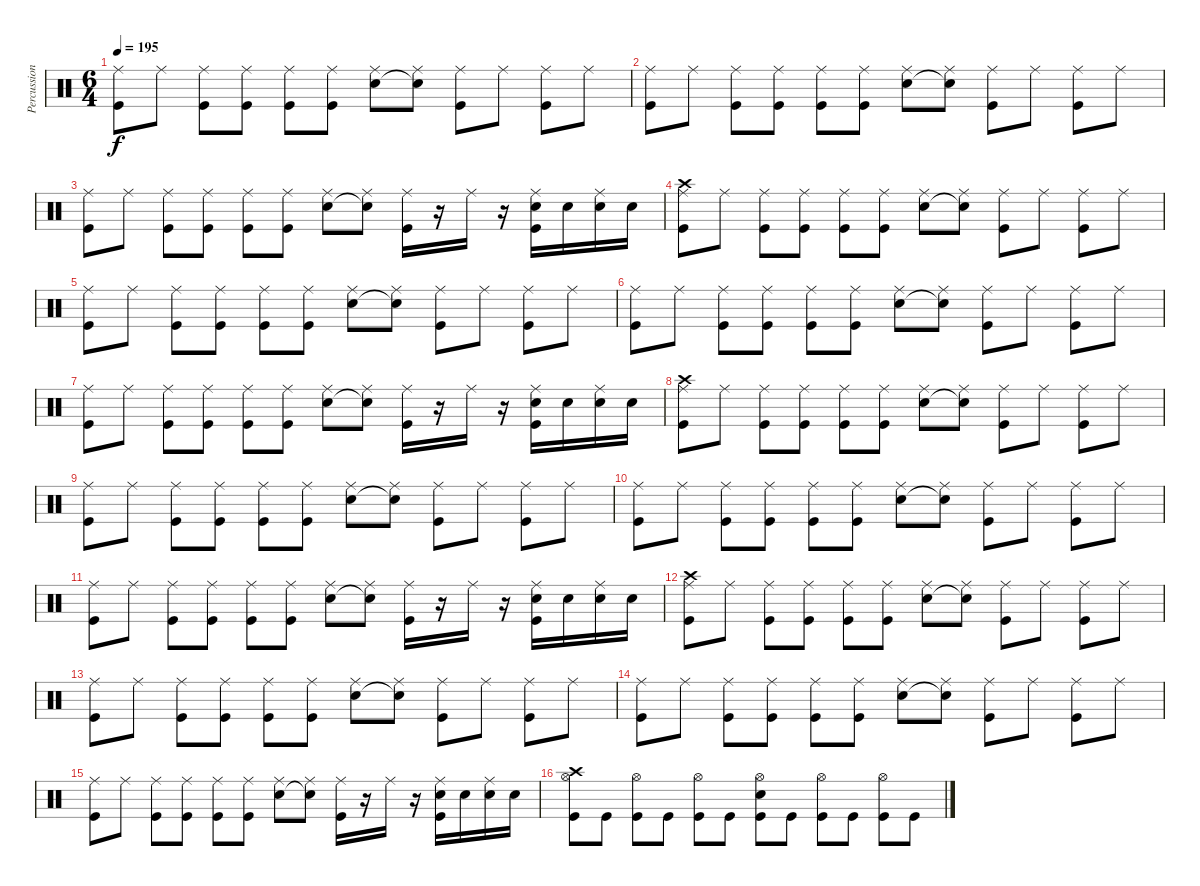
\track ("Percussion" "Percussion") {instrument percussion}
\staff {score}
\articulation defaults
\ts (6 4)
\tempo 195
\clef neutral
\ks c
("Ride (middle)" "Kick (hit)").8{dy f} "Ride (middle)".8 ("Ride (middle)" "Kick (hit)").8 ("Ride (middle)" "Kick (hit)").8 ("Ride (middle)" "Kick (hit)").8 ("Ride (middle)" "Kick (hit)").8 ("Ride (middle)" "Electric Snare (hit)").8 ("Ride (middle)" "Snare (hit)"{t}).8 ("Ride (middle)" "Kick (hit)").8 "Ride (middle)".8 ("Ride (middle)" "Kick (hit)").8 "Ride (middle)".8 |
("Ride (middle)" "Kick (hit)").8 "Ride (middle)".8 ("Ride (middle)" "Kick (hit)").8 ("Ride (middle)" "Kick (hit)").8 ("Ride (middle)" "Kick (hit)").8 ("Ride (middle)" "Kick (hit)").8 ("Ride (middle)" "Electric Snare (hit)").8 ("Ride (middle)" "Snare (hit)"{t}).8 ("Ride (middle)" "Kick (hit)").8 "Ride (middle)".8 ("Ride (middle)" "Kick (hit)").8 "Ride (middle)".8 |
("Ride (middle)" "Kick (hit)").8 "Ride (middle)".8 ("Ride (middle)" "Kick (hit)").8 ("Ride (middle)" "Kick (hit)").8 ("Ride (middle)" "Kick (hit)").8 ("Ride (middle)" "Kick (hit)").8 ("Ride (middle)" "Electric Snare (hit)").8 ("Ride (middle)" "Snare (hit)"{t}).8 ("Ride (middle)" "Kick (hit)").16 r.16 "Ride (middle)".16 r.16 ("Ride (middle)" "Electric Snare (hit)" "Kick (hit)").16 "Electric Snare (hit)".16 ("Ride (middle)" "Electric Snare (hit)").16 "Electric Snare (hit)".16 |
("Crash high (hit)" "Ride (middle)" "Kick (hit)").8 "Ride (middle)".8 ("Ride (middle)" "Kick (hit)").8 ("Ride (middle)" "Kick (hit)").8 ("Ride (middle)" "Kick (hit)").8 ("Ride (middle)" "Kick (hit)").8 ("Ride (middle)" "Electric Snare (hit)").8 ("Ride (middle)" "Snare (hit)"{t}).8 ("Ride (middle)" "Kick (hit)").8 "Ride (middle)".8 ("Ride (middle)" "Kick (hit)").8 "Ride (middle)".8 |
("Ride (middle)" "Kick (hit)").8 "Ride (middle)".8 ("Ride (middle)" "Kick (hit)").8 ("Ride (middle)" "Kick (hit)").8 ("Ride (middle)" "Kick (hit)").8 ("Ride (middle)" "Kick (hit)").8 ("Ride (middle)" "Electric Snare (hit)").8 ("Ride (middle)" "Snare (hit)"{t}).8 ("Ride (middle)" "Kick (hit)").8 "Ride (middle)".8 ("Ride (middle)" "Kick (hit)").8 "Ride (middle)".8 |
("Ride (middle)" "Kick (hit)").8 "Ride (middle)".8 ("Ride (middle)" "Kick (hit)").8 ("Ride (middle)" "Kick (hit)").8 ("Ride (middle)" "Kick (hit)").8 ("Ride (middle)" "Kick (hit)").8 ("Ride (middle)" "Electric Snare (hit)").8 ("Ride (middle)" "Snare (hit)"{t}).8 ("Ride (middle)" "Kick (hit)").8 "Ride (middle)".8 ("Ride (middle)" "Kick (hit)").8 "Ride (middle)".8 |
("Ride (middle)" "Kick (hit)").8 "Ride (middle)".8 ("Ride (middle)" "Kick (hit)").8 ("Ride (middle)" "Kick (hit)").8 ("Ride (middle)" "Kick (hit)").8 ("Ride (middle)" "Kick (hit)").8 ("Ride (middle)" "Electric Snare (hit)").8 ("Ride (middle)" "Snare (hit)"{t}).8 ("Ride (middle)" "Kick (hit)").16 r.16 "Ride (middle)".16 r.16 ("Ride (middle)" "Electric Snare (hit)" "Kick (hit)").16 "Electric Snare (hit)".16 ("Ride (middle)" "Electric Snare (hit)").16 "Electric Snare (hit)".16 |
("Crash high (hit)" "Ride (middle)" "Kick (hit)").8 "Ride (middle)".8 ("Ride (middle)" "Kick (hit)").8 ("Ride (middle)" "Kick (hit)").8 ("Ride (middle)" "Kick (hit)").8 ("Ride (middle)" "Kick (hit)").8 ("Ride (middle)" "Electric Snare (hit)").8 ("Ride (middle)" "Snare (hit)"{t}).8 ("Ride (middle)" "Kick (hit)").8 "Ride (middle)".8 ("Ride (middle)" "Kick (hit)").8 "Ride (middle)".8 |
("Ride (middle)" "Kick (hit)").8 "Ride (middle)".8 ("Ride (middle)" "Kick (hit)").8 ("Ride (middle)" "Kick (hit)").8 ("Ride (middle)" "Kick (hit)").8 ("Ride (middle)" "Kick (hit)").8 ("Ride (middle)" "Electric Snare (hit)").8 ("Ride (middle)" "Snare (hit)"{t}).8 ("Ride (middle)" "Kick (hit)").8 "Ride (middle)".8 ("Ride (middle)" "Kick (hit)").8 "Ride (middle)".8 |
("Ride (middle)" "Kick (hit)").8 "Ride (middle)".8 ("Ride (middle)" "Kick (hit)").8 ("Ride (middle)" "Kick (hit)").8 ("Ride (middle)" "Kick (hit)").8 ("Ride (middle)" "Kick (hit)").8 ("Ride (middle)" "Electric Snare (hit)").8 ("Ride (middle)" "Snare (hit)"{t}).8 ("Ride (middle)" "Kick (hit)").8 "Ride (middle)".8 ("Ride (middle)" "Kick (hit)").8 "Ride (middle)".8 |
("Ride (middle)" "Kick (hit)").8 "Ride (middle)".8 ("Ride (middle)" "Kick (hit)").8 ("Ride (middle)" "Kick (hit)").8 ("Ride (middle)" "Kick (hit)").8 ("Ride (middle)" "Kick (hit)").8 ("Ride (middle)" "Electric Snare (hit)").8 ("Ride (middle)" "Snare (hit)"{t}).8 ("Ride (middle)" "Kick (hit)").16 r.16 "Ride (middle)".16 r.16 ("Ride (middle)" "Electric Snare (hit)" "Kick (hit)").16 "Electric Snare (hit)".16 ("Ride (middle)" "Electric Snare (hit)").16 "Electric Snare (hit)".16 |
("Crash high (hit)" "Ride (middle)" "Kick (hit)").8 "Ride (middle)".8 ("Ride (middle)" "Kick (hit)").8 ("Ride (middle)" "Kick (hit)").8 ("Ride (middle)" "Kick (hit)").8 ("Ride (middle)" "Kick (hit)").8 ("Ride (middle)" "Electric Snare (hit)").8 ("Ride (middle)" "Snare (hit)"{t}).8 ("Ride (middle)" "Kick (hit)").8 "Ride (middle)".8 ("Ride (middle)" "Kick (hit)").8 "Ride (middle)".8 |
("Ride (middle)" "Kick (hit)").8 "Ride (middle)".8 ("Ride (middle)" "Kick (hit)").8 ("Ride (middle)" "Kick (hit)").8 ("Ride (middle)" "Kick (hit)").8 ("Ride (middle)" "Kick (hit)").8 ("Ride (middle)" "Electric Snare (hit)").8 ("Ride (middle)" "Snare (hit)"{t}).8 ("Ride (middle)" "Kick (hit)").8 "Ride (middle)".8 ("Ride (middle)" "Kick (hit)").8 "Ride (middle)".8 |
("Ride (middle)" "Kick (hit)").8 "Ride (middle)".8 ("Ride (middle)" "Kick (hit)").8 ("Ride (middle)" "Kick (hit)").8 ("Ride (middle)" "Kick (hit)").8 ("Ride (middle)" "Kick (hit)").8 ("Ride (middle)" "Electric Snare (hit)").8 ("Ride (middle)" "Snare (hit)"{t}).8 ("Ride (middle)" "Kick (hit)").8 "Ride (middle)".8 ("Ride (middle)" "Kick (hit)").8 "Ride (middle)".8 |
("Ride (middle)" "Kick (hit)").8 "Ride (middle)".8 ("Ride (middle)" "Kick (hit)").8 ("Ride (middle)" "Kick (hit)").8 ("Ride (middle)" "Kick (hit)").8 ("Ride (middle)" "Kick (hit)").8 ("Ride (middle)" "Electric Snare (hit)").8 ("Ride (middle)" "Snare (hit)"{t}).8 ("Ride (middle)" "Kick (hit)").16 r.16 "Ride (middle)".16 r.16 ("Ride (middle)" "Electric Snare (hit)" "Kick (hit)").16 "Electric Snare (hit)".16 ("Ride (middle)" "Electric Snare (hit)").16 "Electric Snare (hit)".16 |
("Crash high (hit)" "Hi-Hat (open)" "Kick (hit)").8 "Kick (hit)".8 ("Hi-Hat (open)" "Kick (hit)").8 "Kick (hit)".8 ("Hi-Hat (open)" "Kick (hit)").8 "Kick (hit)".8 ("Electric Snare (hit)" "Hi-Hat (open)" "Kick (hit)").8 "Kick (hit)".8 ("Hi-Hat (open)" "Kick (hit)").8 "Kick (hit)".8 ("Hi-Hat (open)" "Kick (hit)").8 "Kick (hit)".8
